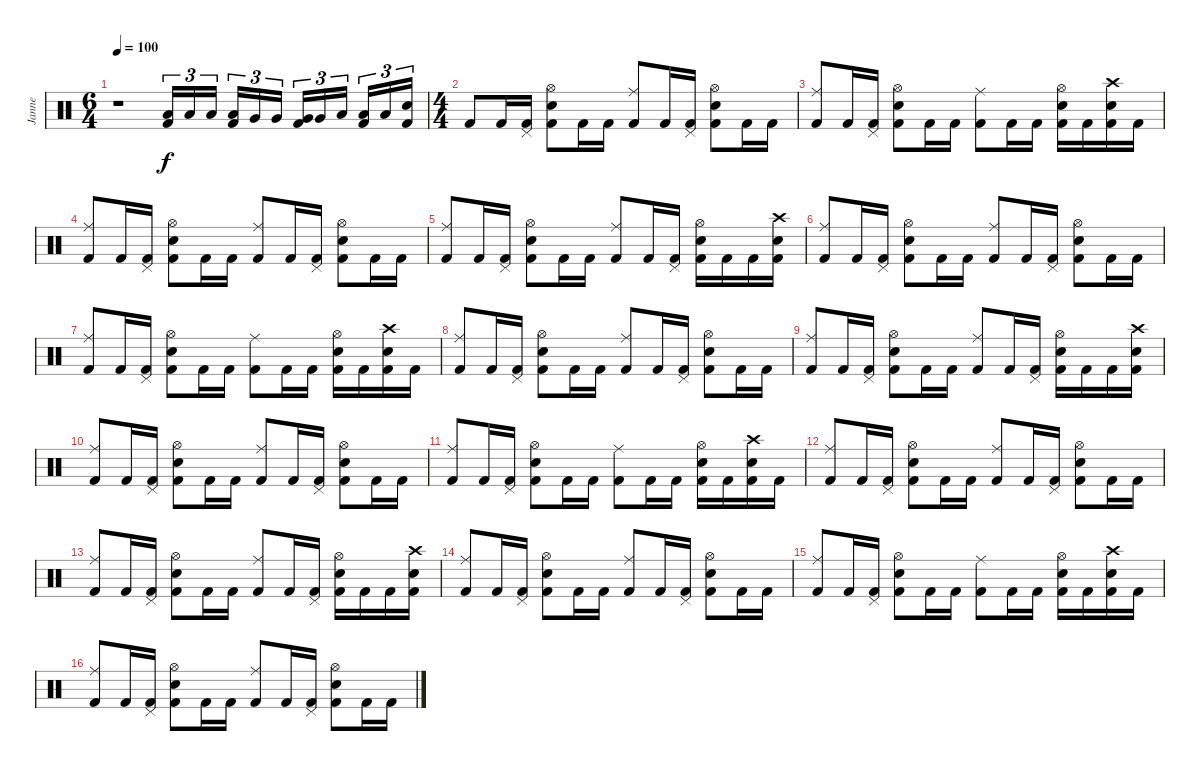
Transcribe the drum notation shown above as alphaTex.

\track ("Janne" "Janne") {instrument percussion}
\staff {score}
\articulation defaults
\ts (6 4)
\tempo 100
\clef neutral
\ks c
r.1{dy f} ("Low Tom (hit)" "Kick (hit) 2").16{tu (3 2)} "Low Tom (hit)".16{tu (3 2)} "Low Tom (hit)".16{tu (3 2) beam splitsecondary} ("Low Tom (hit)" "Kick (hit) 2").16{tu (3 2)} "Very Low Tom (hit)".16{tu (3 2)} "Very Low Tom (hit)".16{tu (3 2) beam splitsecondary} ("Very Low Tom (hit)" "Kick (hit) 2").16{tu (3 2)} "Very Low Tom (hit)".16{tu (3 2)} "Low Floor Tom (hit)".16{tu (3 2) beam splitsecondary} ("Low Floor Tom (hit)" "Kick (hit) 2").16{tu (3 2)} "Low Floor Tom (hit)".16{tu (3 2)} ("Electric Snare (hit)" "Kick (hit) 2").16{tu (3 2)} |
\ts (4 4)
"Kick (hit) 2".8 "Kick (hit) 2".16 ("Pedal Hi-Hat (hit)" "Kick (hit) 2").16 ("Hi-Hat (open)" "Electric Snare (hit)" "Kick (hit) 2").8 "Kick (hit) 2".16 "Kick (hit) 2".16 ("Ride (middle)" "Kick (hit) 2").8 "Kick (hit) 2".16 ("Pedal Hi-Hat (hit)" "Kick (hit) 2").16 ("Hi-Hat (open)" "Electric Snare (hit)" "Kick (hit) 2").8 "Kick (hit) 2".16 "Kick (hit) 2".16 |
("Ride (middle)" "Kick (hit) 2").8 "Kick (hit) 2".16 ("Pedal Hi-Hat (hit)" "Kick (hit) 2").16 ("Hi-Hat (open)" "Electric Snare (hit)" "Kick (hit) 2").8 "Kick (hit) 2".16 "Kick (hit) 2".16 ("Ride (middle)" "Kick (hit) 2").8 "Kick (hit) 2".16 "Kick (hit) 2".16 ("Hi-Hat (open)" "Electric Snare (hit)" "Kick (hit) 2").16 "Kick (hit) 2".16 ("Crash high (hit)" "Electric Snare (hit)" "Kick (hit) 2").16 "Kick (hit) 2".16 |
("Ride (middle)" "Kick (hit) 2").8 "Kick (hit) 2".16 ("Pedal Hi-Hat (hit)" "Kick (hit) 2").16 ("Hi-Hat (open)" "Electric Snare (hit)" "Kick (hit) 2").8 "Kick (hit) 2".16 "Kick (hit) 2".16 ("Ride (middle)" "Kick (hit) 2").8 "Kick (hit) 2".16 ("Pedal Hi-Hat (hit)" "Kick (hit) 2").16 ("Hi-Hat (open)" "Electric Snare (hit)" "Kick (hit) 2").8 "Kick (hit) 2".16 "Kick (hit) 2".16 |
("Ride (middle)" "Kick (hit) 2").8 "Kick (hit) 2".16 ("Pedal Hi-Hat (hit)" "Kick (hit) 2").16 ("Hi-Hat (open)" "Electric Snare (hit)" "Kick (hit) 2").8 "Kick (hit) 2".16 "Kick (hit) 2".16 ("Ride (middle)" "Kick (hit) 2").8 "Kick (hit) 2".16 ("Pedal Hi-Hat (hit)" "Kick (hit) 2").16 ("Hi-Hat (open)" "Electric Snare (hit)" "Kick (hit) 2").16 "Kick (hit) 2".16 "Kick (hit) 2".16 ("Crash high (hit)" "Electric Snare (hit)" "Kick (hit) 2").16 |
("Ride (middle)" "Kick (hit) 2").8 "Kick (hit) 2".16 ("Pedal Hi-Hat (hit)" "Kick (hit) 2").16 ("Hi-Hat (open)" "Electric Snare (hit)" "Kick (hit) 2").8 "Kick (hit) 2".16 "Kick (hit) 2".16 ("Ride (middle)" "Kick (hit) 2").8 "Kick (hit) 2".16 ("Pedal Hi-Hat (hit)" "Kick (hit) 2").16 ("Hi-Hat (open)" "Electric Snare (hit)" "Kick (hit) 2").8 "Kick (hit) 2".16 "Kick (hit) 2".16 |
("Ride (middle)" "Kick (hit) 2").8 "Kick (hit) 2".16 ("Pedal Hi-Hat (hit)" "Kick (hit) 2").16 ("Hi-Hat (open)" "Electric Snare (hit)" "Kick (hit) 2").8 "Kick (hit) 2".16 "Kick (hit) 2".16 ("Ride (middle)" "Kick (hit) 2").8 "Kick (hit) 2".16 "Kick (hit) 2".16 ("Hi-Hat (open)" "Electric Snare (hit)" "Kick (hit) 2").16 "Kick (hit) 2".16 ("Crash high (hit)" "Electric Snare (hit)" "Kick (hit) 2").16 "Kick (hit) 2".16 |
("Ride (middle)" "Kick (hit) 2").8 "Kick (hit) 2".16 ("Pedal Hi-Hat (hit)" "Kick (hit) 2").16 ("Hi-Hat (open)" "Electric Snare (hit)" "Kick (hit) 2").8 "Kick (hit) 2".16 "Kick (hit) 2".16 ("Ride (middle)" "Kick (hit) 2").8 "Kick (hit) 2".16 ("Pedal Hi-Hat (hit)" "Kick (hit) 2").16 ("Hi-Hat (open)" "Electric Snare (hit)" "Kick (hit) 2").8 "Kick (hit) 2".16 "Kick (hit) 2".16 |
("Ride (middle)" "Kick (hit) 2").8 "Kick (hit) 2".16 ("Pedal Hi-Hat (hit)" "Kick (hit) 2").16 ("Hi-Hat (open)" "Electric Snare (hit)" "Kick (hit) 2").8 "Kick (hit) 2".16 "Kick (hit) 2".16 ("Ride (middle)" "Kick (hit) 2").8 "Kick (hit) 2".16 ("Pedal Hi-Hat (hit)" "Kick (hit) 2").16 ("Hi-Hat (open)" "Electric Snare (hit)" "Kick (hit) 2").16 "Kick (hit) 2".16 "Kick (hit) 2".16 ("Crash high (hit)" "Electric Snare (hit)" "Kick (hit) 2").16 |
("Ride (middle)" "Kick (hit) 2").8 "Kick (hit) 2".16 ("Pedal Hi-Hat (hit)" "Kick (hit) 2").16 ("Hi-Hat (open)" "Electric Snare (hit)" "Kick (hit) 2").8 "Kick (hit) 2".16 "Kick (hit) 2".16 ("Ride (middle)" "Kick (hit) 2").8 "Kick (hit) 2".16 ("Pedal Hi-Hat (hit)" "Kick (hit) 2").16 ("Hi-Hat (open)" "Electric Snare (hit)" "Kick (hit) 2").8 "Kick (hit) 2".16 "Kick (hit) 2".16 |
("Ride (middle)" "Kick (hit) 2").8 "Kick (hit) 2".16 ("Pedal Hi-Hat (hit)" "Kick (hit) 2").16 ("Hi-Hat (open)" "Electric Snare (hit)" "Kick (hit) 2").8 "Kick (hit) 2".16 "Kick (hit) 2".16 ("Ride (middle)" "Kick (hit) 2").8 "Kick (hit) 2".16 "Kick (hit) 2".16 ("Hi-Hat (open)" "Electric Snare (hit)" "Kick (hit) 2").16 "Kick (hit) 2".16 ("Crash high (hit)" "Electric Snare (hit)" "Kick (hit) 2").16 "Kick (hit) 2".16 |
("Ride (middle)" "Kick (hit) 2").8 "Kick (hit) 2".16 ("Pedal Hi-Hat (hit)" "Kick (hit) 2").16 ("Hi-Hat (open)" "Electric Snare (hit)" "Kick (hit) 2").8 "Kick (hit) 2".16 "Kick (hit) 2".16 ("Ride (middle)" "Kick (hit) 2").8 "Kick (hit) 2".16 ("Pedal Hi-Hat (hit)" "Kick (hit) 2").16 ("Hi-Hat (open)" "Electric Snare (hit)" "Kick (hit) 2").8 "Kick (hit) 2".16 "Kick (hit) 2".16 |
("Ride (middle)" "Kick (hit) 2").8 "Kick (hit) 2".16 ("Pedal Hi-Hat (hit)" "Kick (hit) 2").16 ("Hi-Hat (open)" "Electric Snare (hit)" "Kick (hit) 2").8 "Kick (hit) 2".16 "Kick (hit) 2".16 ("Ride (middle)" "Kick (hit) 2").8 "Kick (hit) 2".16 ("Pedal Hi-Hat (hit)" "Kick (hit) 2").16 ("Hi-Hat (open)" "Electric Snare (hit)" "Kick (hit) 2").16 "Kick (hit) 2".16 "Kick (hit) 2".16 ("Crash high (hit)" "Electric Snare (hit)" "Kick (hit) 2").16 |
("Ride (middle)" "Kick (hit) 2").8 "Kick (hit) 2".16 ("Pedal Hi-Hat (hit)" "Kick (hit) 2").16 ("Hi-Hat (open)" "Electric Snare (hit)" "Kick (hit) 2").8 "Kick (hit) 2".16 "Kick (hit) 2".16 ("Ride (middle)" "Kick (hit) 2").8 "Kick (hit) 2".16 ("Pedal Hi-Hat (hit)" "Kick (hit) 2").16 ("Hi-Hat (open)" "Electric Snare (hit)" "Kick (hit) 2").8 "Kick (hit) 2".16 "Kick (hit) 2".16 |
("Ride (middle)" "Kick (hit) 2").8 "Kick (hit) 2".16 ("Pedal Hi-Hat (hit)" "Kick (hit) 2").16 ("Hi-Hat (open)" "Electric Snare (hit)" "Kick (hit) 2").8 "Kick (hit) 2".16 "Kick (hit) 2".16 ("Ride (middle)" "Kick (hit) 2").8 "Kick (hit) 2".16 "Kick (hit) 2".16 ("Hi-Hat (open)" "Electric Snare (hit)" "Kick (hit) 2").16 "Kick (hit) 2".16 ("Crash high (hit)" "Electric Snare (hit)" "Kick (hit) 2").16 "Kick (hit) 2".16 |
("Ride (middle)" "Kick (hit) 2").8 "Kick (hit) 2".16 ("Pedal Hi-Hat (hit)" "Kick (hit) 2").16 ("Hi-Hat (open)" "Electric Snare (hit)" "Kick (hit) 2").8 "Kick (hit) 2".16 "Kick (hit) 2".16 ("Ride (middle)" "Kick (hit) 2").8 "Kick (hit) 2".16 ("Pedal Hi-Hat (hit)" "Kick (hit) 2").16 ("Hi-Hat (open)" "Electric Snare (hit)" "Kick (hit) 2").8 "Kick (hit) 2".16 "Kick (hit) 2".16
